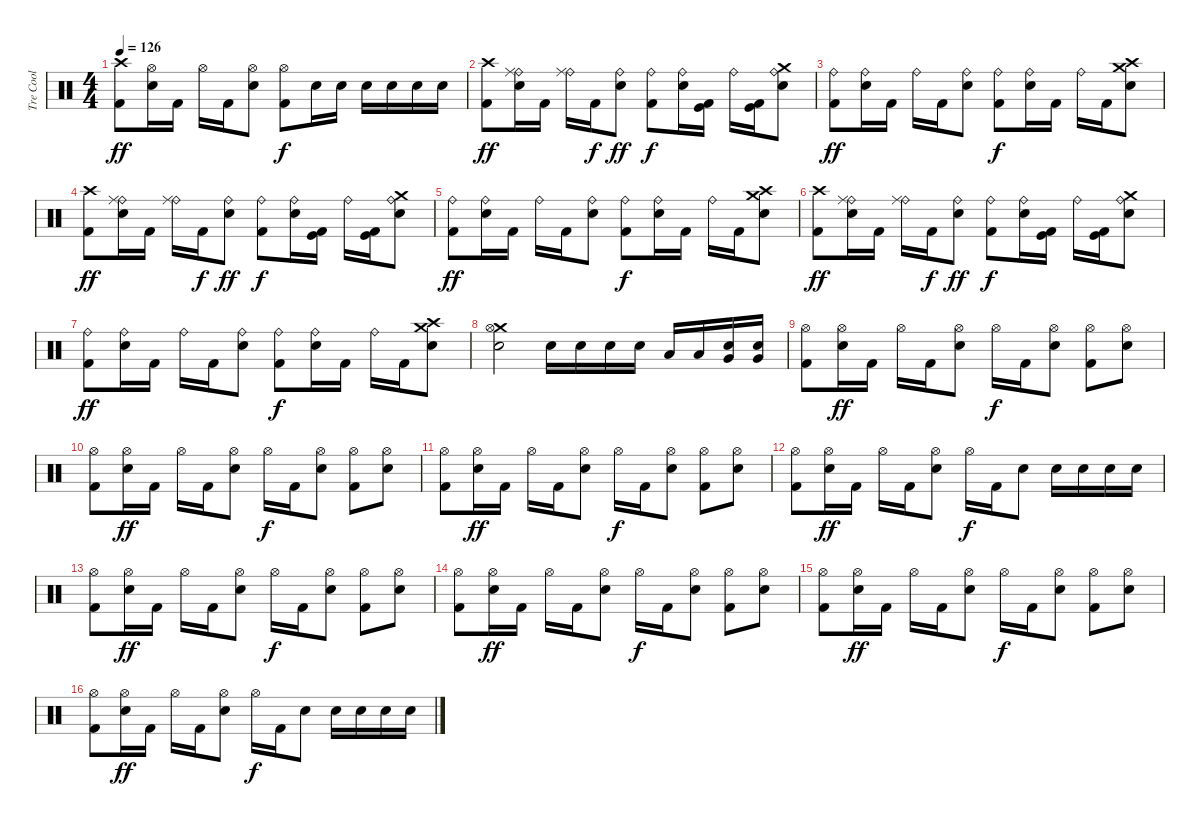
\track ("Tre Cool" "Tre Cool") {instrument percussion}
\staff {score}
\articulation defaults
\ts (4 4)
\tempo 126
\clef neutral
\ks c
("Crash high (hit)" "Kick (hit) 2").8{dy ff} ("Hi-Hat (open)" "Snare (hit) 2").16 "Kick (hit) 2".16 "Hi-Hat (open)".16 "Kick (hit) 2".16 ("Hi-Hat (open)" "Snare (hit) 2").8 ("Hi-Hat (open)" "Kick (hit) 2").8{dy f} "Snare (hit) 2".16 "Snare (hit) 2".16 "Snare (hit) 2".16 "Snare (hit) 2".16 "Snare (hit) 2".16 "Snare (hit) 2".16 |
("Crash high (hit)" "Kick (hit) 2").8{dy ff} ("Ride (bell)" "Ride (middle)" "Snare (hit) 2").16 "Kick (hit) 2".16 ("Ride (bell)" "Ride (middle)").16 "Kick (hit) 2".16{dy f} ("Snare (hit) 2" "Ride (bell)").8{dy ff} ("Ride (bell)" "Kick (hit) 2").8{dy f} ("Ride (bell)" "Snare (hit) 2").16 ("Kick (hit)" "Kick (hit) 2").16 "Ride (bell)".16 ("Kick (hit)" "Kick (hit) 2").16 ("Ride (bell)" "Crash medium (hit)" "Snare (hit) 2").8 |
("Ride (bell)" "Kick (hit) 2").8{dy ff} ("Ride (bell)" "Snare (hit) 2").16 "Kick (hit) 2".16 "Ride (bell)".16 "Kick (hit) 2".16 ("Ride (bell)" "Snare (hit) 2").8 ("Ride (bell)" "Kick (hit) 2").8{dy f} ("Ride (bell)" "Snare (hit) 2").16 "Kick (hit) 2".16 "Ride (bell)".16 "Kick (hit) 2".16 ("Crash high (hit)" "Crash medium (hit)" "Snare (hit) 2").8 |
("Crash high (hit)" "Kick (hit) 2").8{dy ff} ("Ride (bell)" "Ride (middle)" "Snare (hit) 2").16 "Kick (hit) 2".16 ("Ride (bell)" "Ride (middle)").16 "Kick (hit) 2".16{dy f} ("Snare (hit) 2" "Ride (bell)").8{dy ff} ("Ride (bell)" "Kick (hit) 2").8{dy f} ("Ride (bell)" "Snare (hit) 2").16 ("Kick (hit)" "Kick (hit) 2").16 "Ride (bell)".16 ("Kick (hit)" "Kick (hit) 2").16 ("Ride (bell)" "Crash medium (hit)" "Snare (hit) 2").8 |
("Ride (bell)" "Kick (hit) 2").8{dy ff} ("Ride (bell)" "Snare (hit) 2").16 "Kick (hit) 2".16 "Ride (bell)".16 "Kick (hit) 2".16 ("Ride (bell)" "Snare (hit) 2").8 ("Ride (bell)" "Kick (hit) 2").8{dy f} ("Ride (bell)" "Snare (hit) 2").16 "Kick (hit) 2".16 "Ride (bell)".16 "Kick (hit) 2".16 ("Crash high (hit)" "Crash medium (hit)" "Snare (hit) 2").8 |
("Crash high (hit)" "Kick (hit) 2").8{dy ff} ("Ride (bell)" "Ride (middle)" "Snare (hit) 2").16 "Kick (hit) 2".16 ("Ride (bell)" "Ride (middle)").16 "Kick (hit) 2".16{dy f} ("Snare (hit) 2" "Ride (bell)").8{dy ff} ("Ride (bell)" "Kick (hit) 2").8{dy f} ("Ride (bell)" "Snare (hit) 2").16 ("Kick (hit)" "Kick (hit) 2").16 "Ride (bell)".16 ("Kick (hit)" "Kick (hit) 2").16 ("Ride (bell)" "Crash medium (hit)" "Snare (hit) 2").8 |
("Ride (bell)" "Kick (hit) 2").8{dy ff} ("Ride (bell)" "Snare (hit) 2").16 "Kick (hit) 2".16 "Ride (bell)".16 "Kick (hit) 2".16 ("Ride (bell)" "Snare (hit) 2").8 ("Ride (bell)" "Kick (hit) 2").8{dy f} ("Ride (bell)" "Snare (hit) 2").16 "Kick (hit) 2".16 "Ride (bell)".16 "Kick (hit) 2".16 ("Crash high (hit)" "Crash medium (hit)" "Snare (hit) 2").8 |
("Crash medium (hit)" "Hi-Hat (open)" "Snare (hit) 2").2 "Snare (hit) 2".16 "Snare (hit) 2".16 "Snare (hit) 2".16 "Snare (hit) 2".16 "Low Tom (hit)".16 "Low Tom (hit)".16 ("Very Low Tom (hit)" "Snare (hit) 2").16 ("Very Low Tom (hit)" "Snare (hit) 2").16 |
("Hi-Hat (open)" "Kick (hit) 2").8 ("Hi-Hat (open)" "Snare (hit) 2").16{dy ff} "Kick (hit) 2".16 "Hi-Hat (open)".16 "Kick (hit) 2".16 ("Hi-Hat (open)" "Snare (hit) 2").8 "Hi-Hat (open)".16{dy f} "Kick (hit) 2".16 ("Hi-Hat (open)" "Snare (hit) 2").8 ("Kick (hit) 2" "Hi-Hat (open)").8 ("Snare (hit) 2" "Hi-Hat (open)").8 |
("Hi-Hat (open)" "Kick (hit) 2").8 ("Hi-Hat (open)" "Snare (hit) 2").16{dy ff} "Kick (hit) 2".16 "Hi-Hat (open)".16 "Kick (hit) 2".16 ("Hi-Hat (open)" "Snare (hit) 2").8 "Hi-Hat (open)".16{dy f} "Kick (hit) 2".16 ("Hi-Hat (open)" "Snare (hit) 2").8 ("Kick (hit) 2" "Hi-Hat (open)").8 ("Hi-Hat (open)" "Snare (hit) 2").8 |
("Hi-Hat (open)" "Kick (hit) 2").8 ("Hi-Hat (open)" "Snare (hit) 2").16{dy ff} "Kick (hit) 2".16 "Hi-Hat (open)".16 "Kick (hit) 2".16 ("Hi-Hat (open)" "Snare (hit) 2").8 "Hi-Hat (open)".16{dy f} "Kick (hit) 2".16 ("Hi-Hat (open)" "Snare (hit) 2").8 ("Kick (hit) 2" "Hi-Hat (open)").8 ("Snare (hit) 2" "Hi-Hat (open)").8 |
("Hi-Hat (open)" "Kick (hit) 2").8 ("Hi-Hat (open)" "Snare (hit) 2").16{dy ff} "Kick (hit) 2".16 "Hi-Hat (open)".16 "Kick (hit) 2".16 ("Hi-Hat (open)" "Snare (hit) 2").8 "Hi-Hat (open)".16{dy f} "Kick (hit) 2".16 "Snare (hit) 2".8 "Snare (hit) 2".16 "Snare (hit) 2".16 "Snare (hit) 2".16 "Snare (hit) 2".16 |
("Hi-Hat (open)" "Kick (hit) 2").8 ("Hi-Hat (open)" "Snare (hit) 2").16{dy ff} "Kick (hit) 2".16 "Hi-Hat (open)".16 "Kick (hit) 2".16 ("Hi-Hat (open)" "Snare (hit) 2").8 "Hi-Hat (open)".16{dy f} "Kick (hit) 2".16 ("Hi-Hat (open)" "Snare (hit) 2").8 ("Kick (hit) 2" "Hi-Hat (open)").8 ("Snare (hit) 2" "Hi-Hat (open)").8 |
("Hi-Hat (open)" "Kick (hit) 2").8 ("Hi-Hat (open)" "Snare (hit) 2").16{dy ff} "Kick (hit) 2".16 "Hi-Hat (open)".16 "Kick (hit) 2".16 ("Hi-Hat (open)" "Snare (hit) 2").8 "Hi-Hat (open)".16{dy f} "Kick (hit) 2".16 ("Hi-Hat (open)" "Snare (hit) 2").8 ("Kick (hit) 2" "Hi-Hat (open)").8 ("Hi-Hat (open)" "Snare (hit) 2").8 |
("Hi-Hat (open)" "Kick (hit) 2").8 ("Hi-Hat (open)" "Snare (hit) 2").16{dy ff} "Kick (hit) 2".16 "Hi-Hat (open)".16 "Kick (hit) 2".16 ("Hi-Hat (open)" "Snare (hit) 2").8 "Hi-Hat (open)".16{dy f} "Kick (hit) 2".16 ("Hi-Hat (open)" "Snare (hit) 2").8 ("Kick (hit) 2" "Hi-Hat (open)").8 ("Snare (hit) 2" "Hi-Hat (open)").8 |
("Hi-Hat (open)" "Kick (hit) 2").8 ("Hi-Hat (open)" "Snare (hit) 2").16{dy ff} "Kick (hit) 2".16 "Hi-Hat (open)".16 "Kick (hit) 2".16 ("Hi-Hat (open)" "Snare (hit) 2").8 "Hi-Hat (open)".16{dy f} "Kick (hit) 2".16 "Snare (hit) 2".8 "Snare (hit) 2".16 "Snare (hit) 2".16 "Snare (hit) 2".16 "Snare (hit) 2".16
